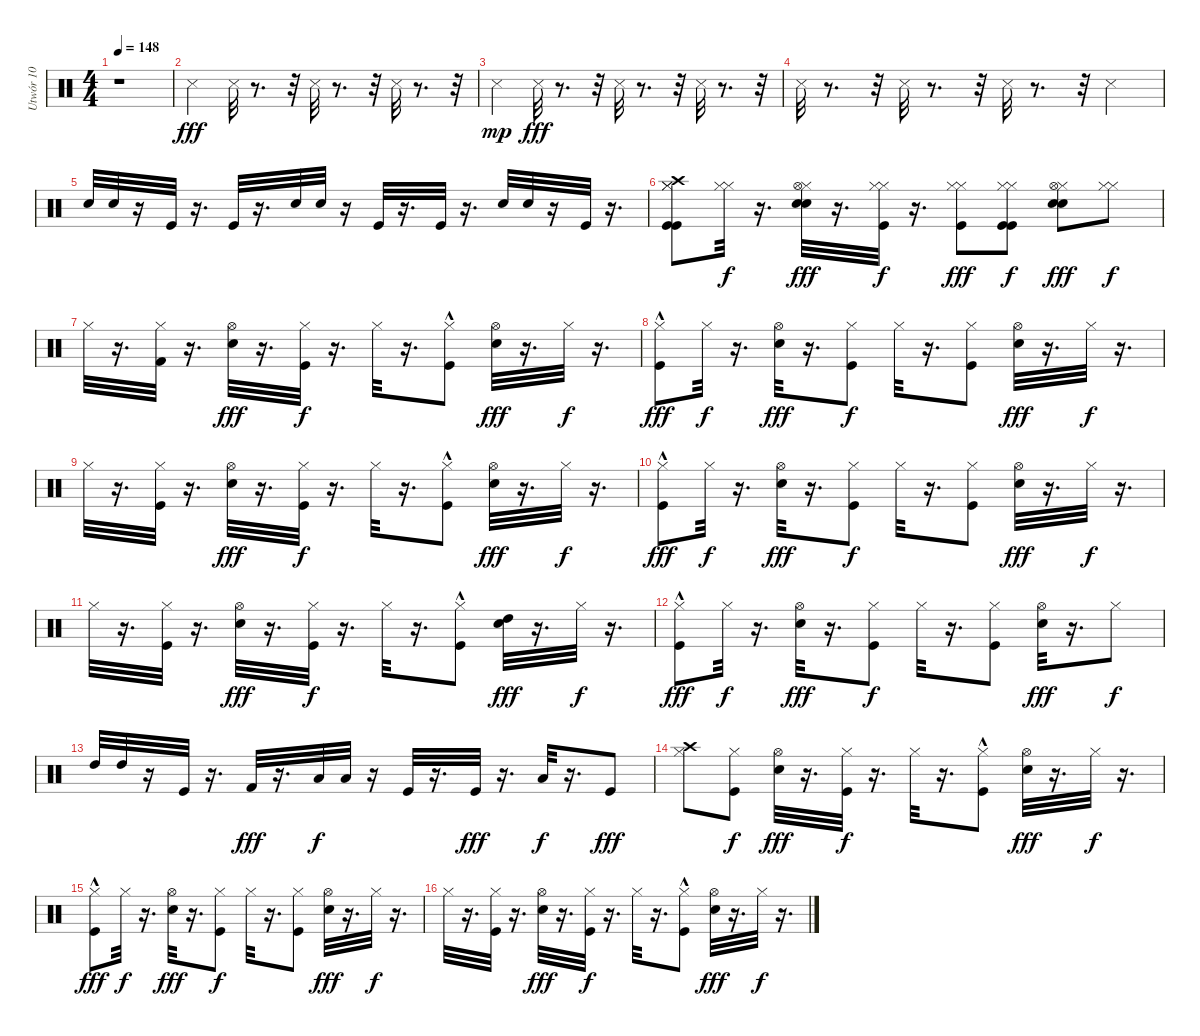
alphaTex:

\track ("Utwór 10" "Utwór 10") {instrument percussion}
\staff {score}
\articulation defaults
\ts (4 4)
\tempo 148
\clef neutral
\ks c
r.1{dy fff} |
"Snare (side stick) 3".4 "Snare (side stick) 3".32 r.8{d} r.32 "Snare (side stick) 3".32 r.8{d} r.32 "Snare (side stick) 3".32 r.8{d} r.32 |
"Snare (side stick) 3".4{dy mp} "Snare (side stick) 3".32{dy fff} r.8{d} r.32 "Snare (side stick) 3".32 r.8{d} r.32 "Snare (side stick) 3".32 r.8{d} r.32 |
"Snare (side stick) 3".32 r.8{d} r.32 "Snare (side stick) 3".32 r.8{d} r.32 "Snare (side stick) 3".32 r.8{d} r.32 "Snare (side stick) 3".4 |
"Electric Snare (hit)".32 "Electric Snare (hit)".32 r.16 "Kick (hit)".32 r.16{d} "Kick (hit)".32 r.16{d} "Electric Snare (hit)".32 "Electric Snare (hit)".32 r.16 "Kick (hit)".32 r.16{d} "Kick (hit)".32 r.16{d} "Electric Snare (hit)".32 "Electric Snare (hit)".32 r.16 "Kick (hit)".32 r.16{d} |
("Crash high (hit)" "Hi-Hat (closed)" "Kick (hit)" "Hi-Hat (closed)" "Kick (hit)").8 ("Hi-Hat (closed)" "Hi-Hat (closed)").32{dy f} r.16{d} ("Hi-Hat (closed)" "Electric Snare (hit)" "Hi-Hat (open)" "Electric Snare (hit)").32{dy fff} r.16{d} ("Hi-Hat (closed)" "Hi-Hat (closed)" "Kick (hit)").32{dy f} r.16{d} ("Hi-Hat (closed)" "Hi-Hat (closed)" "Kick (hit)").8{dy fff} ("Hi-Hat (closed)" "Kick (hit)" "Hi-Hat (closed)" "Kick (hit)").8{dy f} ("Hi-Hat (closed)" "Electric Snare (hit)" "Hi-Hat (open)" "Electric Snare (hit)").8{dy fff} ("Hi-Hat (closed)" "Hi-Hat (closed)").8{dy f} |
"Hi-Hat (closed)".32 r.16{d} ("Hi-Hat (closed)" "Kick (hit) 2").32 r.16{d} ("Hi-Hat (open)" "Electric Snare (hit)").32{dy fff} r.16{d} ("Hi-Hat (closed)" "Kick (hit)").32{dy f} r.16{d} "Hi-Hat (closed)".32 r.16{d} ("Hi-Hat (closed)" "Kick (hit)"{hac}).8 ("Hi-Hat (open)" "Electric Snare (hit)").32{dy fff} r.16{d} "Hi-Hat (closed)".32{dy f} r.16{d} |
("Hi-Hat (closed)" "Kick (hit)"{hac}).8{dy fff} "Hi-Hat (closed)".32{dy f} r.16{d} ("Hi-Hat (open)" "Electric Snare (hit)").32{dy fff} r.16{d} ("Hi-Hat (closed)" "Kick (hit)").8{dy f} "Hi-Hat (closed)".32 r.16{d} ("Hi-Hat (closed)" "Kick (hit)").8 ("Hi-Hat (open)" "Electric Snare (hit)").32{dy fff} r.16{d} "Hi-Hat (closed)".32{dy f} r.16{d} |
"Hi-Hat (closed)".32 r.16{d} ("Hi-Hat (closed)" "Kick (hit)").32 r.16{d} ("Hi-Hat (open)" "Electric Snare (hit)").32{dy fff} r.16{d} ("Hi-Hat (closed)" "Kick (hit)").32{dy f} r.16{d} "Hi-Hat (closed)".32 r.16{d} ("Hi-Hat (closed)" "Kick (hit)"{hac}).8 ("Hi-Hat (open)" "Electric Snare (hit)").32{dy fff} r.16{d} "Hi-Hat (closed)".32{dy f} r.16{d} |
("Hi-Hat (closed)" "Kick (hit)"{hac}).8{dy fff} "Hi-Hat (closed)".32{dy f} r.16{d} ("Hi-Hat (open)" "Electric Snare (hit)").32{dy fff} r.16{d} ("Hi-Hat (closed)" "Kick (hit)").8{dy f} "Hi-Hat (closed)".32 r.16{d} ("Hi-Hat (closed)" "Kick (hit)").8 ("Hi-Hat (open)" "Electric Snare (hit)").32{dy fff} r.16{d} "Hi-Hat (closed)".32{dy f} r.16{d} |
"Hi-Hat (closed)".32 r.16{d} ("Hi-Hat (closed)" "Kick (hit)").32 r.16{d} ("Hi-Hat (open)" "Electric Snare (hit)").32{dy fff} r.16{d} ("Hi-Hat (closed)" "Kick (hit)").32{dy f} r.16{d} "Hi-Hat (closed)".32 r.16{d} ("Hi-Hat (closed)" "Kick (hit)"{hac}).8 ("High Tom (hit)" "Electric Snare (hit)").32{dy fff} r.16{d} "Hi-Hat (closed)".32{dy f} r.16{d} |
("Hi-Hat (closed)" "Kick (hit)"{hac}).8{dy fff} "Hi-Hat (closed)".32{dy f} r.16{d} ("Hi-Hat (open)" "Electric Snare (hit)").32{dy fff} r.16{d} ("Hi-Hat (closed)" "Kick (hit)").8{dy f} "Hi-Hat (closed)".32 r.16{d} ("Hi-Hat (closed)" "Kick (hit)").8 ("Hi-Hat (open)" "Electric Snare (hit)").32{dy fff} r.16{d} "Hi-Hat (closed)".8{dy f} |
"High Tom (hit)".32 "High Tom (hit)".32 r.16 "Kick (hit)".32 r.16{d} "Kick (hit) 2".32{dy fff} r.16{d} "Low Tom (hit)".32{dy f} "Low Tom (hit)".32 r.16 "Kick (hit)".32 r.16{d} "Kick (hit)".32{dy fff} r.16{d} "Low Floor Tom (hit)".32{dy f} r.16{d} "Kick (hit)".8{dy fff} |
("Crash high (hit)" "Hi-Hat (closed)").8 ("Hi-Hat (closed)" "Kick (hit)").8{dy f} ("Hi-Hat (open)" "Electric Snare (hit)").32{dy fff} r.16{d} ("Hi-Hat (closed)" "Kick (hit)").32{dy f} r.16{d} "Hi-Hat (closed)".32 r.16{d} ("Hi-Hat (closed)" "Kick (hit)"{hac}).8 ("Hi-Hat (open)" "Electric Snare (hit)").32{dy fff} r.16{d} "Hi-Hat (closed)".32{dy f} r.16{d} |
("Hi-Hat (closed)" "Kick (hit)"{hac}).8{dy fff} "Hi-Hat (closed)".32{dy f} r.16{d} ("Hi-Hat (open)" "Electric Snare (hit)").32{dy fff} r.16{d} ("Hi-Hat (closed)" "Kick (hit)").8{dy f} "Hi-Hat (closed)".32 r.16{d} ("Hi-Hat (closed)" "Kick (hit)").8 ("Hi-Hat (open)" "Electric Snare (hit)").32{dy fff} r.16{d} "Hi-Hat (closed)".32{dy f} r.16{d} |
"Hi-Hat (closed)".32 r.16{d} ("Hi-Hat (closed)" "Kick (hit)").32 r.16{d} ("Hi-Hat (open)" "Electric Snare (hit)").32{dy fff} r.16{d} ("Hi-Hat (closed)" "Kick (hit)").32{dy f} r.16{d} "Hi-Hat (closed)".32 r.16{d} ("Hi-Hat (closed)" "Kick (hit)"{hac}).8 ("Hi-Hat (open)" "Electric Snare (hit)").32{dy fff} r.16{d} "Hi-Hat (closed)".32{dy f} r.16{d}
